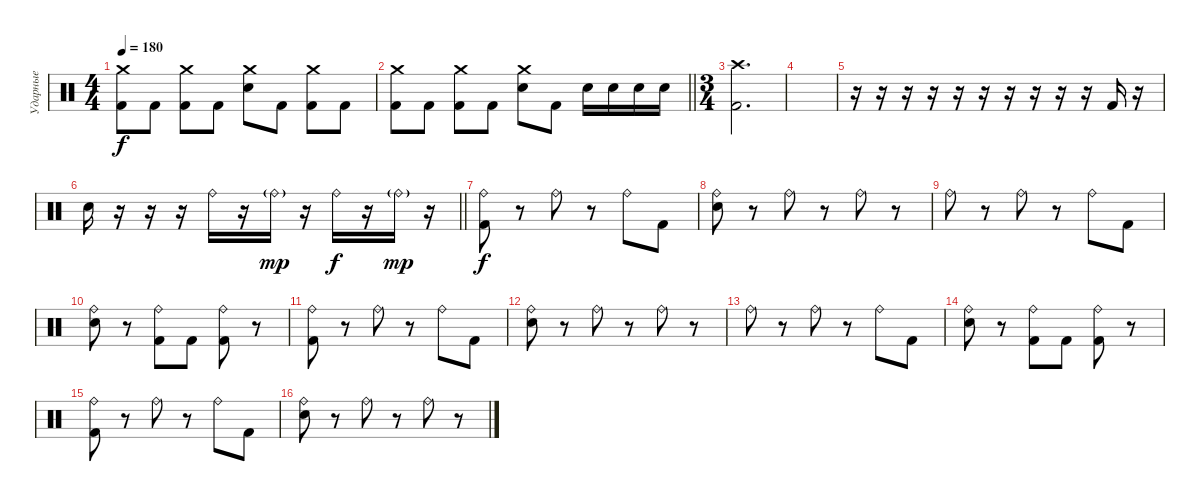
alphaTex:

\track ("Ударные" "Ударные") {instrument percussion}
\staff {score}
\articulation defaults
\ts (4 4)
\tempo 180
\clef neutral
\ks c
("Crash medium (hit)" "Kick (hit) 2").8{dy f} "Kick (hit) 2".8 ("Crash medium (hit)" "Kick (hit) 2").8 "Kick (hit) 2".8 ("Crash medium (hit)" "Electric Snare (hit)").8 "Kick (hit) 2".8 ("Crash medium (hit)" "Kick (hit) 2").8 "Kick (hit) 2".8 |
\barLineRight lightlight
("Crash medium (hit)" "Kick (hit) 2").8 "Kick (hit) 2".8 ("Crash medium (hit)" "Kick (hit) 2").8 "Kick (hit) 2".8 ("Crash medium (hit)" "Electric Snare (hit)").8 "Kick (hit) 2".8 "Electric Snare (hit)".16 "Electric Snare (hit)".16 "Electric Snare (hit)".16 "Electric Snare (hit)".16 |
\ts (3 4)
\section ("" "")
("Crash high (hit)" "Kick (hit) 2").2{d} |
|
r.16 r.16 r.16 r.16 r.16 r.16 r.16 r.16 r.16 r.16 "Kick (hit) 2".16 r.16 |
\barLineRight lightlight "Electric Snare (hit)".16
r.16 r.16 r.16 "Ride (bell)".16 r.16 "Ride (bell)"{g}.16{dy mp} r.16 "Ride (bell)".16{dy f} r.16 "Ride (bell)"{g}.16{dy mp} r.16 |
\section ("" "")
("Ride (bell)" "Kick (hit) 2").8{dy f} r.8 "Ride (bell)".8 r.8 "Ride (bell)".8 "Kick (hit) 2".8 |
("Ride (bell)" "Electric Snare (hit)").8 r.8 "Ride (bell)".8 r.8 "Ride (bell)".8 r.8 |
"Ride (bell)".8 r.8 "Ride (bell)".8 r.8 "Ride (bell)".8 "Kick (hit) 2".8 |
("Ride (bell)" "Electric Snare (hit)").8 r.8 ("Ride (bell)" "Kick (hit) 2").8 "Kick (hit) 2".8 ("Ride (bell)" "Kick (hit) 2").8 r.8 |
("Ride (bell)" "Kick (hit) 2").8 r.8 "Ride (bell)".8 r.8 "Ride (bell)".8 "Kick (hit) 2".8 |
("Ride (bell)" "Electric Snare (hit)").8 r.8 "Ride (bell)".8 r.8 "Ride (bell)".8 r.8 |
"Ride (bell)".8 r.8 "Ride (bell)".8 r.8 "Ride (bell)".8 "Kick (hit) 2".8 |
("Ride (bell)" "Electric Snare (hit)").8 r.8 ("Ride (bell)" "Kick (hit) 2").8 "Kick (hit) 2".8 ("Ride (bell)" "Kick (hit) 2").8 r.8 |
("Ride (bell)" "Kick (hit) 2").8 r.8 "Ride (bell)".8 r.8 "Ride (bell)".8 "Kick (hit) 2".8 |
("Ride (bell)" "Electric Snare (hit)").8 r.8 "Ride (bell)".8 r.8 "Ride (bell)".8 r.8
